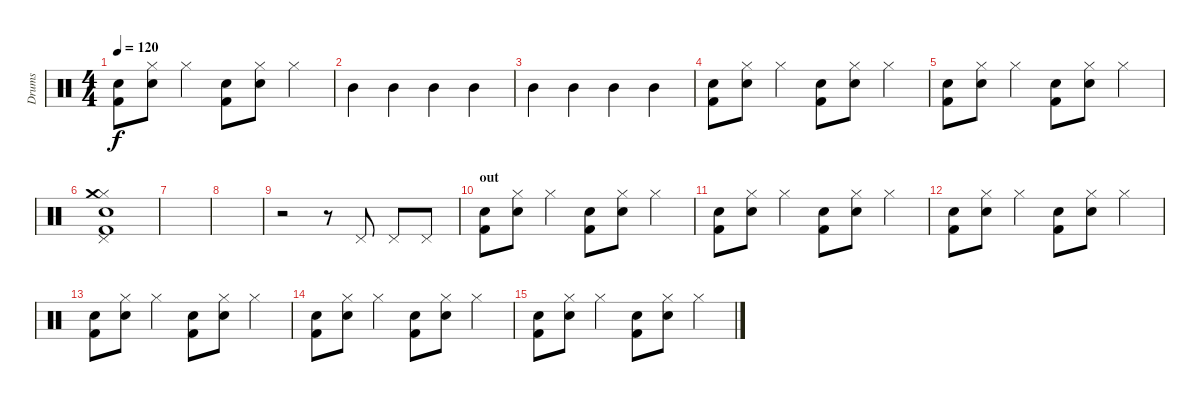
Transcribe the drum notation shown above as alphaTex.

\track ("Drums" "Drums") {instrument percussion}
\staff {score}
\articulation defaults
\ts (4 4)
\tempo 120
\clef neutral
\ks c
("Kick (hit) 2" "Snare (hit) 2").8{dy f} ("Hi-Hat (closed)" "Snare (hit) 2").8 "Hi-Hat (closed)".4 ("Kick (hit) 2" "Snare (hit) 2").8 ("Hi-Hat (closed)" "Snare (hit) 2").8 "Hi-Hat (closed)".4 |
"Mid Tom (hit)".4 "Mid Tom (hit)".4 "Mid Tom (hit)".4 "Mid Tom (hit)".4 |
"Mid Tom (hit)".4 "Mid Tom (hit)".4 "Mid Tom (hit)".4 "Mid Tom (hit)".4 |
("Kick (hit) 2" "Snare (hit) 2").8 ("Hi-Hat (closed)" "Snare (hit) 2").8 "Hi-Hat (closed)".4 ("Kick (hit) 2" "Snare (hit) 2").8 ("Hi-Hat (closed)" "Snare (hit) 2").8 "Hi-Hat (closed)".4 |
("Kick (hit) 2" "Snare (hit) 2").8 ("Hi-Hat (closed)" "Snare (hit) 2").8 "Hi-Hat (closed)".4 ("Kick (hit) 2" "Snare (hit) 2").8 ("Hi-Hat (closed)" "Snare (hit) 2").8 "Hi-Hat (closed)".4 |
("Pedal Hi-Hat (hit)" "Hi-Hat (closed)" "Kick (hit) 2" "Snare (hit) 2" "Crash medium (hit)").1 |
|
|
r.2 r.8 "Pedal Hi-Hat (hit)".8 "Pedal Hi-Hat (hit)".8 "Pedal Hi-Hat (hit)".8 |
\section ("" "out")
("Kick (hit) 2" "Snare (hit) 2").8 ("Hi-Hat (closed)" "Snare (hit) 2").8 "Hi-Hat (closed)".4 ("Kick (hit) 2" "Snare (hit) 2").8 ("Hi-Hat (closed)" "Snare (hit) 2").8 "Hi-Hat (closed)".4 |
("Kick (hit) 2" "Snare (hit) 2").8 ("Hi-Hat (closed)" "Snare (hit) 2").8 "Hi-Hat (closed)".4 ("Kick (hit) 2" "Snare (hit) 2").8 ("Hi-Hat (closed)" "Snare (hit) 2").8 "Hi-Hat (closed)".4 |
("Kick (hit) 2" "Snare (hit) 2").8 ("Hi-Hat (closed)" "Snare (hit) 2").8 "Hi-Hat (closed)".4 ("Kick (hit) 2" "Snare (hit) 2").8 ("Hi-Hat (closed)" "Snare (hit) 2").8 "Hi-Hat (closed)".4 |
("Kick (hit) 2" "Snare (hit) 2").8 ("Hi-Hat (closed)" "Snare (hit) 2").8 "Hi-Hat (closed)".4 ("Kick (hit) 2" "Snare (hit) 2").8 ("Hi-Hat (closed)" "Snare (hit) 2").8 "Hi-Hat (closed)".4 |
("Kick (hit) 2" "Snare (hit) 2").8 ("Hi-Hat (closed)" "Snare (hit) 2").8 "Hi-Hat (closed)".4 ("Kick (hit) 2" "Snare (hit) 2").8 ("Hi-Hat (closed)" "Snare (hit) 2").8 "Hi-Hat (closed)".4 |
("Kick (hit) 2" "Snare (hit) 2").8 ("Hi-Hat (closed)" "Snare (hit) 2").8 "Hi-Hat (closed)".4 ("Kick (hit) 2" "Snare (hit) 2").8 ("Hi-Hat (closed)" "Snare (hit) 2").8 "Hi-Hat (closed)".4
